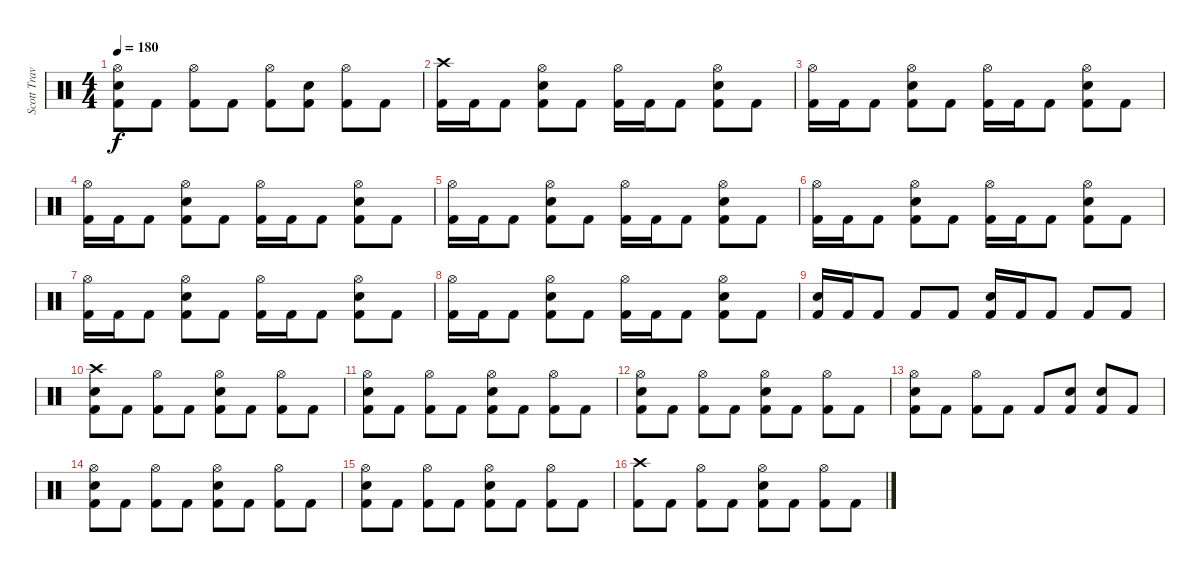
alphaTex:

\track ("Scott Travis" "Scott Trav") {instrument percussion}
\staff {score}
\articulation defaults
\ts (4 4)
\tempo 180
\clef neutral
\ks c
("Hi-Hat (open)" "Snare (hit) 2" "Kick (hit) 2").8{dy f} "Kick (hit) 2".8 ("Hi-Hat (open)" "Kick (hit) 2").8 "Kick (hit) 2".8 ("Hi-Hat (open)" "Kick (hit) 2").8 ("Snare (hit) 2" "Kick (hit) 2").8 ("Hi-Hat (open)" "Kick (hit) 2").8 "Kick (hit) 2".8 |
("Crash high (hit)" "Kick (hit) 2").16 "Kick (hit) 2".16 "Kick (hit) 2".8 ("Hi-Hat (open)" "Snare (hit) 2" "Kick (hit) 2").8 "Kick (hit) 2".8 ("Hi-Hat (open)" "Kick (hit) 2").16 "Kick (hit) 2".16 "Kick (hit) 2".8 ("Hi-Hat (open)" "Snare (hit) 2" "Kick (hit) 2").8 "Kick (hit) 2".8 |
("Hi-Hat (open)" "Kick (hit) 2").16 "Kick (hit) 2".16 "Kick (hit) 2".8 ("Hi-Hat (open)" "Snare (hit) 2" "Kick (hit) 2").8 "Kick (hit) 2".8 ("Hi-Hat (open)" "Kick (hit) 2").16 "Kick (hit) 2".16 "Kick (hit) 2".8 ("Hi-Hat (open)" "Snare (hit) 2" "Kick (hit) 2").8 "Kick (hit) 2".8 |
("Hi-Hat (open)" "Kick (hit) 2").16 "Kick (hit) 2".16 "Kick (hit) 2".8 ("Hi-Hat (open)" "Snare (hit) 2" "Kick (hit) 2").8 "Kick (hit) 2".8 ("Hi-Hat (open)" "Kick (hit) 2").16 "Kick (hit) 2".16 "Kick (hit) 2".8 ("Hi-Hat (open)" "Snare (hit) 2" "Kick (hit) 2").8 "Kick (hit) 2".8 |
("Hi-Hat (open)" "Kick (hit) 2").16 "Kick (hit) 2".16 "Kick (hit) 2".8 ("Hi-Hat (open)" "Snare (hit) 2" "Kick (hit) 2").8 "Kick (hit) 2".8 ("Hi-Hat (open)" "Kick (hit) 2").16 "Kick (hit) 2".16 "Kick (hit) 2".8 ("Hi-Hat (open)" "Snare (hit) 2" "Kick (hit) 2").8 "Kick (hit) 2".8 |
("Hi-Hat (open)" "Kick (hit) 2").16 "Kick (hit) 2".16 "Kick (hit) 2".8 ("Hi-Hat (open)" "Snare (hit) 2" "Kick (hit) 2").8 "Kick (hit) 2".8 ("Hi-Hat (open)" "Kick (hit) 2").16 "Kick (hit) 2".16 "Kick (hit) 2".8 ("Hi-Hat (open)" "Snare (hit) 2" "Kick (hit) 2").8 "Kick (hit) 2".8 |
("Hi-Hat (open)" "Kick (hit) 2").16 "Kick (hit) 2".16 "Kick (hit) 2".8 ("Hi-Hat (open)" "Snare (hit) 2" "Kick (hit) 2").8 "Kick (hit) 2".8 ("Hi-Hat (open)" "Kick (hit) 2").16 "Kick (hit) 2".16 "Kick (hit) 2".8 ("Hi-Hat (open)" "Snare (hit) 2" "Kick (hit) 2").8 "Kick (hit) 2".8 |
("Hi-Hat (open)" "Kick (hit) 2").16 "Kick (hit) 2".16 "Kick (hit) 2".8 ("Hi-Hat (open)" "Snare (hit) 2" "Kick (hit) 2").8 "Kick (hit) 2".8 ("Hi-Hat (open)" "Kick (hit) 2").16 "Kick (hit) 2".16 "Kick (hit) 2".8 ("Hi-Hat (open)" "Snare (hit) 2" "Kick (hit) 2").8 "Kick (hit) 2".8 |
("Snare (hit) 2" "Kick (hit) 2").16 "Kick (hit) 2".16 "Kick (hit) 2".8 "Kick (hit) 2".8 "Kick (hit) 2".8 ("Snare (hit) 2" "Kick (hit) 2").16 "Kick (hit) 2".16 "Kick (hit) 2".8 "Kick (hit) 2".8 "Kick (hit) 2".8 |
("Crash high (hit)" "Snare (hit) 2" "Kick (hit) 2").8 "Kick (hit) 2".8 ("Hi-Hat (open)" "Kick (hit) 2").8 "Kick (hit) 2".8 ("Hi-Hat (open)" "Snare (hit) 2" "Kick (hit) 2").8 "Kick (hit) 2".8 ("Hi-Hat (open)" "Kick (hit) 2").8 "Kick (hit) 2".8 |
("Hi-Hat (open)" "Snare (hit) 2" "Kick (hit) 2").8 "Kick (hit) 2".8 ("Hi-Hat (open)" "Kick (hit) 2").8 "Kick (hit) 2".8 ("Hi-Hat (open)" "Snare (hit) 2" "Kick (hit) 2").8 "Kick (hit) 2".8 ("Hi-Hat (open)" "Kick (hit) 2").8 "Kick (hit) 2".8 |
("Hi-Hat (open)" "Snare (hit) 2" "Kick (hit) 2").8 "Kick (hit) 2".8 ("Hi-Hat (open)" "Kick (hit) 2").8 "Kick (hit) 2".8 ("Hi-Hat (open)" "Snare (hit) 2" "Kick (hit) 2").8 "Kick (hit) 2".8 ("Hi-Hat (open)" "Kick (hit) 2").8 "Kick (hit) 2".8 |
("Hi-Hat (open)" "Snare (hit) 2" "Kick (hit) 2").8 "Kick (hit) 2".8 ("Hi-Hat (open)" "Kick (hit) 2").8 "Kick (hit) 2".8 "Kick (hit) 2".8 ("Snare (hit) 2" "Kick (hit) 2").8 ("Snare (hit) 2" "Kick (hit) 2").8 "Kick (hit) 2".8 |
("Hi-Hat (open)" "Snare (hit) 2" "Kick (hit) 2").8 "Kick (hit) 2".8 ("Hi-Hat (open)" "Kick (hit) 2").8 "Kick (hit) 2".8 ("Hi-Hat (open)" "Snare (hit) 2" "Kick (hit) 2").8 "Kick (hit) 2".8 ("Hi-Hat (open)" "Kick (hit) 2").8 "Kick (hit) 2".8 |
("Hi-Hat (open)" "Snare (hit) 2" "Kick (hit) 2").8 "Kick (hit) 2".8 ("Hi-Hat (open)" "Kick (hit) 2").8 "Kick (hit) 2".8 ("Hi-Hat (open)" "Snare (hit) 2" "Kick (hit) 2").8 "Kick (hit) 2".8 ("Hi-Hat (open)" "Kick (hit) 2").8 "Kick (hit) 2".8 |
("Crash high (hit)" "Kick (hit) 2").8 "Kick (hit) 2".8 ("Hi-Hat (open)" "Kick (hit) 2").8 "Kick (hit) 2".8 ("Hi-Hat (open)" "Snare (hit) 2" "Kick (hit) 2").8 "Kick (hit) 2".8 ("Hi-Hat (open)" "Kick (hit) 2").8 "Kick (hit) 2".8
